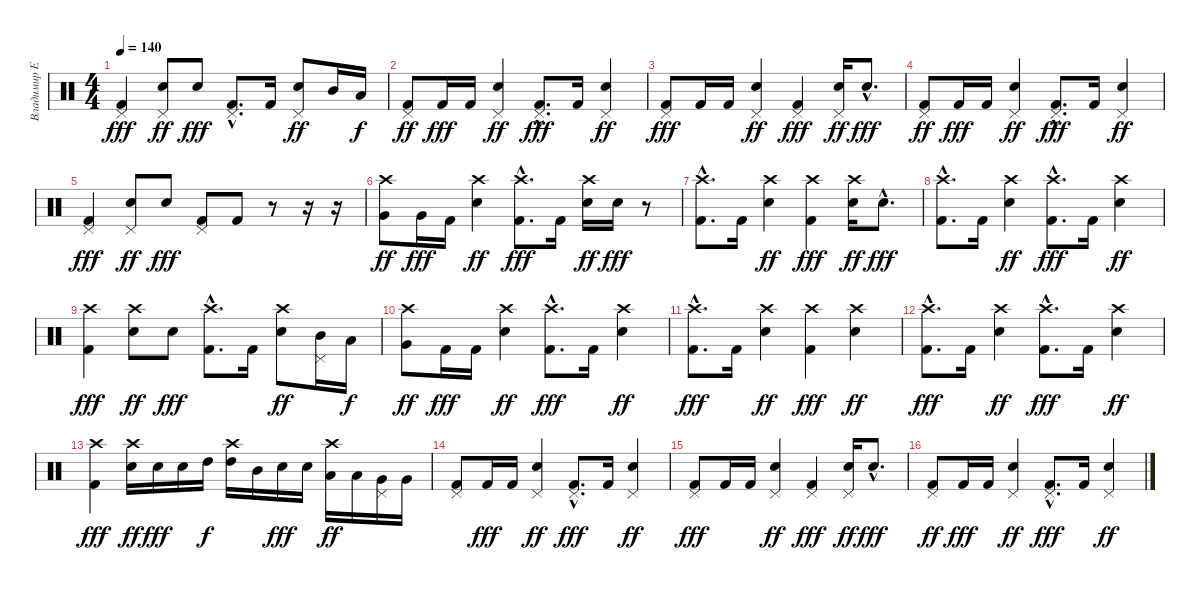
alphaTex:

\track ("Владимир Ермаков" "Владимир Е") {instrument percussion}
\staff {score}
\articulation defaults
\ts (4 4)
\tempo 140
\clef neutral
\ks c
("Kick (hit) 2" "Pedal Hi-Hat (hit)").4{dy fff} ("Electric Snare (hit)" "Pedal Hi-Hat (hit)").8{dy ff} "Electric Snare (hit)".8{dy fff} ("Kick (hit) 2"{hac} "Pedal Hi-Hat (hit)"{hac}).8{d} "Kick (hit) 2".16 ("Electric Snare (hit)" "Pedal Hi-Hat (hit)").8{dy ff} "Mid Tom (hit)".16 "Low Tom (hit)".16{dy f} |
("Kick (hit) 2" "Pedal Hi-Hat (hit)").8{dy ff} "Kick (hit) 2".16{dy fff} "Kick (hit) 2".16 ("Electric Snare (hit)" "Pedal Hi-Hat (hit)").4{dy ff} ("Kick (hit) 2"{hac} "Pedal Hi-Hat (hit)"{hac}).8{d dy fff} "Kick (hit) 2".16 ("Electric Snare (hit)" "Pedal Hi-Hat (hit)").4{dy ff} |
("Kick (hit) 2" "Pedal Hi-Hat (hit)").8{dy fff} "Kick (hit) 2".16 "Kick (hit) 2".16 ("Electric Snare (hit)" "Pedal Hi-Hat (hit)").4{dy ff} ("Kick (hit) 2" "Pedal Hi-Hat (hit)").4{dy fff} ("Electric Snare (hit)" "Pedal Hi-Hat (hit)").16{dy ff} "Electric Snare (hit)"{hac}.8{d dy fff} |
("Kick (hit) 2" "Pedal Hi-Hat (hit)").8{dy ff} "Kick (hit) 2".16{dy fff} "Kick (hit) 2".16 ("Electric Snare (hit)" "Pedal Hi-Hat (hit)").4{dy ff} ("Kick (hit) 2"{hac} "Pedal Hi-Hat (hit)"{hac}).8{d dy fff} "Kick (hit) 2".16 ("Electric Snare (hit)" "Pedal Hi-Hat (hit)").4{dy ff} |
("Kick (hit) 2" "Pedal Hi-Hat (hit)").4{dy fff} ("Electric Snare (hit)" "Pedal Hi-Hat (hit)").8{dy ff} "Electric Snare (hit)".8{dy fff} ("Kick (hit) 2" "Pedal Hi-Hat (hit)").8 "Kick (hit) 2".8 r.8 r.16 r.16 |
("Very Low Tom (hit)" "Crash high (hit)").8{dy ff} "Very Low Tom (hit)".16{dy fff} "Kick (hit) 2".16 ("Electric Snare (hit)" "Crash high (hit)").4{dy ff} ("Kick (hit) 2"{hac} "Crash high (hit)"{hac}).8{d dy fff} "Kick (hit) 2".16 ("Electric Snare (hit)" "Crash high (hit)").16{dy ff} "Electric Snare (hit)".16{dy fff} r.8 |
("Kick (hit) 2"{hac} "Crash high (hit)"{hac}).8{d} "Kick (hit) 2".16 ("Electric Snare (hit)" "Crash high (hit)").4{dy ff} ("Kick (hit) 2" "Crash high (hit)").4{dy fff} ("Electric Snare (hit)" "Crash high (hit)").16{dy ff} "Electric Snare (hit)"{hac}.8{d dy fff} |
("Kick (hit) 2"{hac} "Crash high (hit)"{hac}).8{d} "Kick (hit) 2".16 ("Electric Snare (hit)" "Crash high (hit)").4{dy ff} ("Kick (hit) 2"{hac} "Crash high (hit)"{hac}).8{d dy fff} "Kick (hit) 2".16 ("Electric Snare (hit)" "Crash high (hit)").4{dy ff} |
("Kick (hit) 2" "Crash high (hit)").4{dy fff} ("Electric Snare (hit)" "Crash high (hit)").8{dy ff} "Electric Snare (hit)".8{dy fff} ("Kick (hit) 2"{hac} "Crash high (hit)"{hac}).8{d} "Kick (hit) 2".16 ("Electric Snare (hit)" "Crash high (hit)").8{dy ff} ("Mid Tom (hit)" "Pedal Hi-Hat (hit)").16 "Low Tom (hit)".16{dy f} |
("Very Low Tom (hit)" "Crash high (hit)").8{dy ff} "Kick (hit) 2".16{dy fff} "Kick (hit) 2".16 ("Electric Snare (hit)" "Crash high (hit)").4{dy ff} ("Kick (hit) 2"{hac} "Crash high (hit)"{hac}).8{d dy fff} "Kick (hit) 2".16 ("Electric Snare (hit)" "Crash high (hit)").4{dy ff} |
("Kick (hit) 2"{hac} "Crash high (hit)"{hac}).8{d dy fff} "Kick (hit) 2".16 ("Electric Snare (hit)" "Crash high (hit)").4{dy ff} ("Kick (hit) 2" "Crash high (hit)").4{dy fff} ("Electric Snare (hit)" "Crash high (hit)").4{dy ff} |
("Kick (hit) 2"{hac} "Crash high (hit)"{hac}).8{d dy fff} "Kick (hit) 2".16 ("Electric Snare (hit)" "Crash high (hit)").4{dy ff} ("Kick (hit) 2"{hac} "Crash high (hit)"{hac}).8{d dy fff} "Kick (hit) 2".16 ("Electric Snare (hit)" "Crash high (hit)").4{dy ff} |
("Kick (hit) 2" "Crash high (hit)").4{dy fff} ("Electric Snare (hit)" "Crash high (hit)").16{dy ff} "Electric Snare (hit)".16{dy fff} "Electric Snare (hit)".16 "High Tom (hit)".16{dy f} ("High Tom (hit)" "Crash high (hit)").16 "Mid Tom (hit)".16 "Electric Snare (hit)".16{dy fff} "Electric Snare (hit)".16 ("Low Tom (hit)" "Crash high (hit)").16{dy ff} "Low Tom (hit)".16 ("Very Low Tom (hit)" "Pedal Hi-Hat (hit)").16 "Very Low Tom (hit)".16 |
("Kick (hit) 2" "Pedal Hi-Hat (hit)").8 "Kick (hit) 2".16{dy fff} "Kick (hit) 2".16 ("Electric Snare (hit)" "Pedal Hi-Hat (hit)").4{dy ff} ("Kick (hit) 2"{hac} "Pedal Hi-Hat (hit)"{hac}).8{d dy fff} "Kick (hit) 2".16 ("Electric Snare (hit)" "Pedal Hi-Hat (hit)").4{dy ff} |
("Kick (hit) 2" "Pedal Hi-Hat (hit)").8{dy fff} "Kick (hit) 2".16 "Kick (hit) 2".16 ("Electric Snare (hit)" "Pedal Hi-Hat (hit)").4{dy ff} ("Kick (hit) 2" "Pedal Hi-Hat (hit)").4{dy fff} ("Electric Snare (hit)" "Pedal Hi-Hat (hit)").16{dy ff} "Electric Snare (hit)"{hac}.8{d dy fff} |
("Kick (hit) 2" "Pedal Hi-Hat (hit)").8{dy ff} "Kick (hit) 2".16{dy fff} "Kick (hit) 2".16 ("Electric Snare (hit)" "Pedal Hi-Hat (hit)").4{dy ff} ("Kick (hit) 2"{hac} "Pedal Hi-Hat (hit)"{hac}).8{d dy fff} "Kick (hit) 2".16 ("Electric Snare (hit)" "Pedal Hi-Hat (hit)").4{dy ff}
